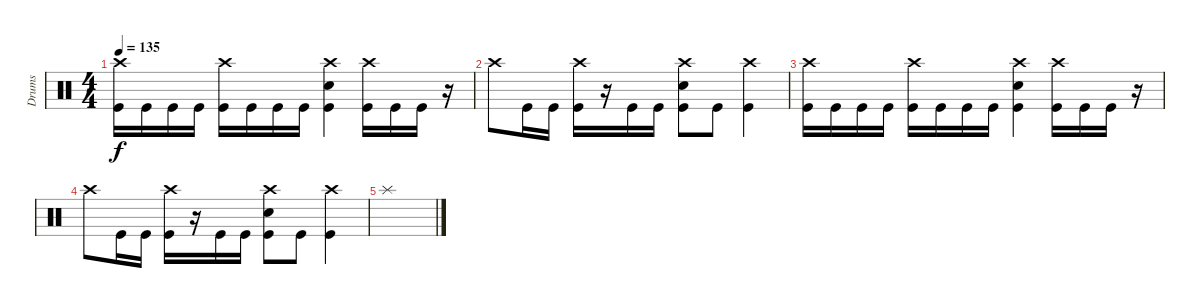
\track ("Drums" "Drums") {instrument percussion}
\staff {score}
\articulation defaults
\ts (4 4)
\tempo 135
\clef neutral
\ks c
("Crash high (hit)" "Kick (hit)").16{dy f} "Kick (hit)".16 "Kick (hit)".16 "Kick (hit)".16 ("Crash high (hit)" "Kick (hit)").16 "Kick (hit)".16 "Kick (hit)".16 "Kick (hit)".16 ("Crash high (hit)" "Snare (hit) 2" "Kick (hit)").4 ("Crash high (hit)" "Kick (hit)").16 "Kick (hit)".16 "Kick (hit)".16 r.16 |
"Crash high (hit)".8 "Kick (hit)".16 "Kick (hit)".16 ("Crash high (hit)" "Kick (hit)").16 r.16 "Kick (hit)".16 "Kick (hit)".16 ("Crash high (hit)" "Snare (hit) 2" "Kick (hit)").8 "Kick (hit)".8 ("Crash high (hit)" "Kick (hit)").4 |
("Crash high (hit)" "Kick (hit)").16 "Kick (hit)".16 "Kick (hit)".16 "Kick (hit)".16 ("Crash high (hit)" "Kick (hit)").16 "Kick (hit)".16 "Kick (hit)".16 "Kick (hit)".16 ("Crash high (hit)" "Snare (hit) 2" "Kick (hit)").4 ("Crash high (hit)" "Kick (hit)").16 "Kick (hit)".16 "Kick (hit)".16 r.16 |
"Crash high (hit)".8 "Kick (hit)".16 "Kick (hit)".16 ("Crash high (hit)" "Kick (hit)").16 r.16 "Kick (hit)".16 "Kick (hit)".16 ("Crash high (hit)" "Snare (hit) 2" "Kick (hit)").8 "Kick (hit)".8 ("Crash high (hit)" "Kick (hit)").4 |
"Splash (hit)".1
